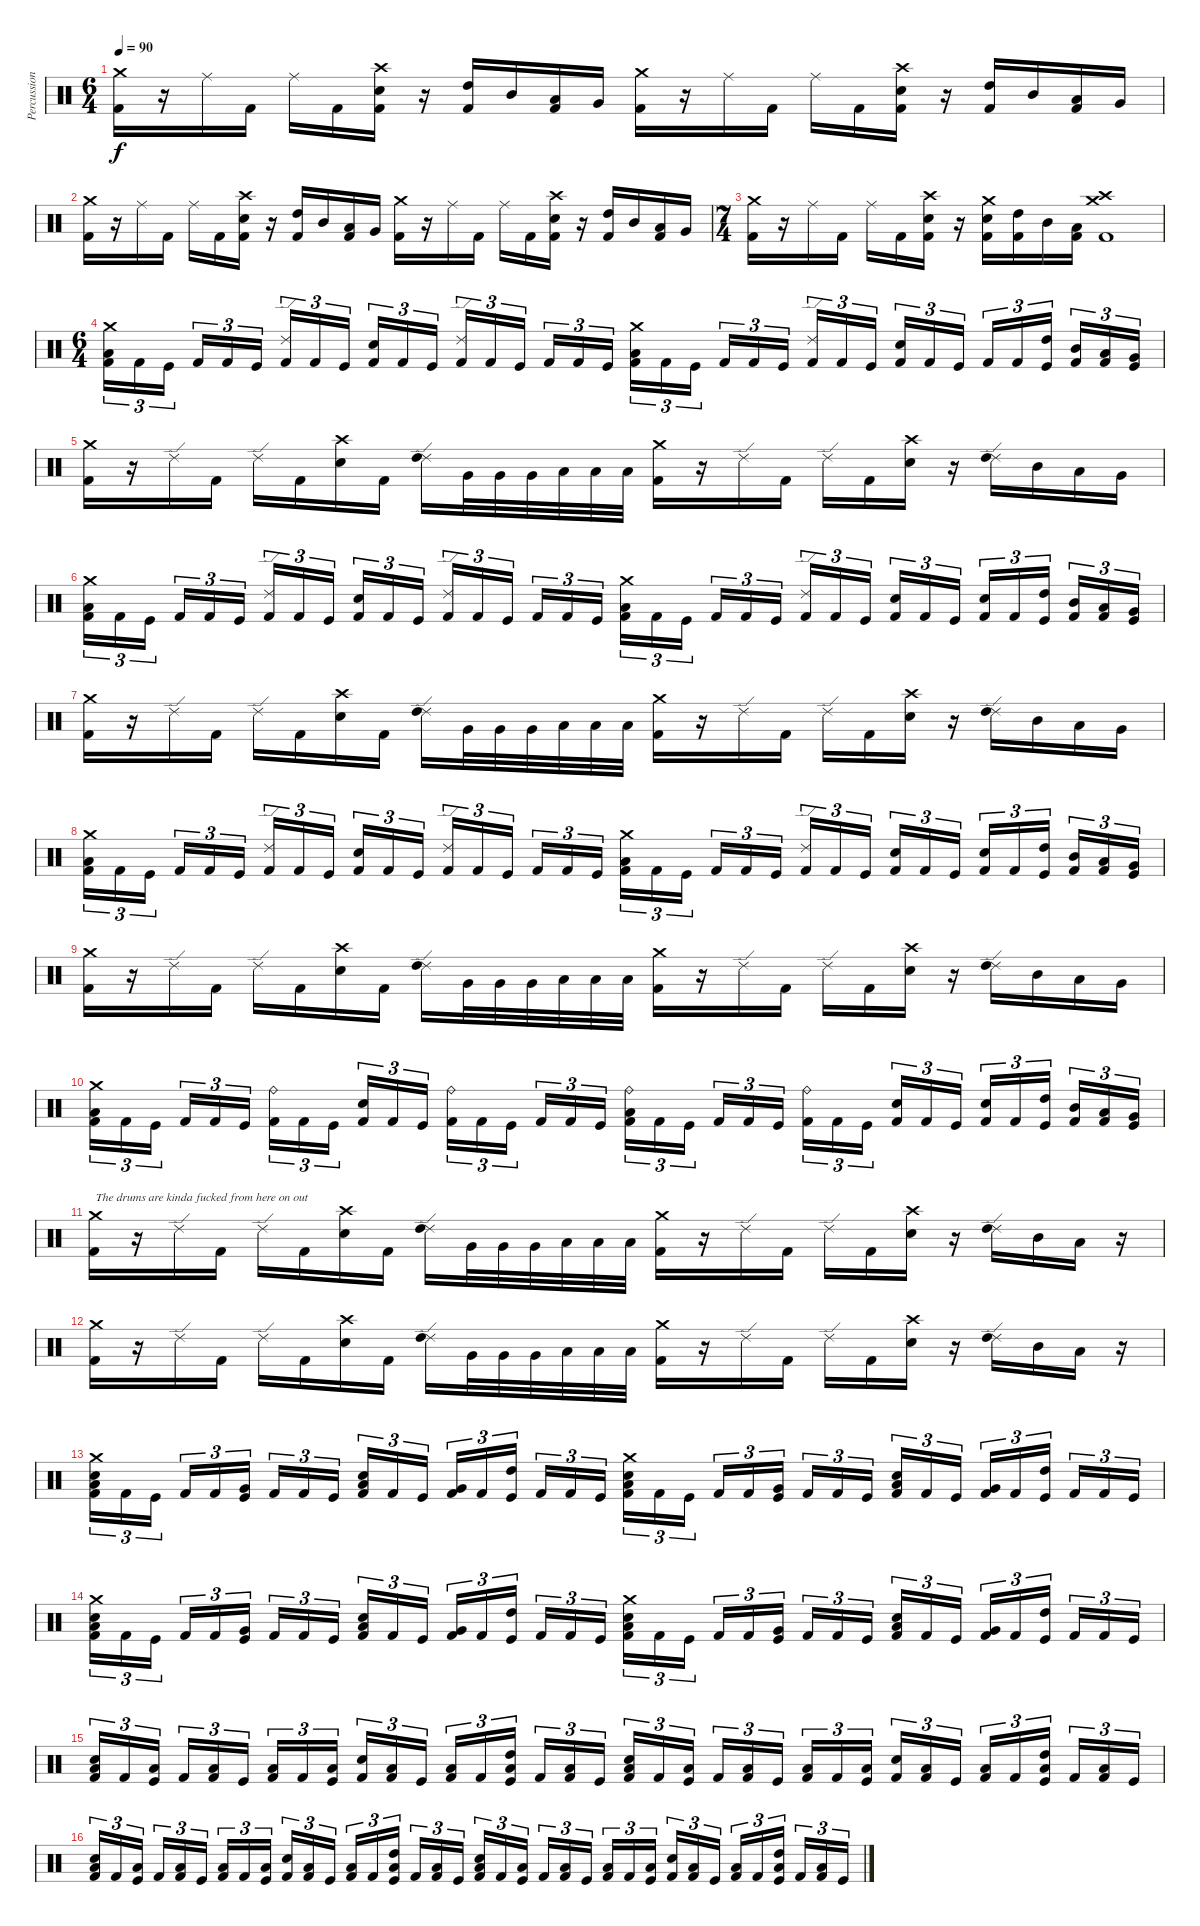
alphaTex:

\track ("Percussion" "Percussion") {instrument percussion}
\staff {score}
\articulation defaults
\ts (6 4)
\tempo 90
\clef neutral
\ks c
("Crash medium (hit)" "Kick (hit) 2").16{dy f} r.16 "Ride (middle)".16 "Kick (hit) 2".16 "Ride (middle)".16 "Kick (hit) 2".16 ("Crash high (hit)" "Electric Snare (hit)" "Kick (hit) 2").16 r.16 ("High Tom (hit)" "Kick (hit) 2").16 "Mid Tom (hit)".16 ("Low Tom (hit)" "Kick (hit) 2").16 "Very Low Tom (hit)".16 ("Crash medium (hit)" "Kick (hit) 2").16 r.16 "Ride (middle)".16 "Kick (hit) 2".16 "Ride (middle)".16 "Kick (hit) 2".16 ("Crash high (hit)" "Electric Snare (hit)" "Kick (hit) 2").16 r.16 ("High Tom (hit)" "Kick (hit) 2").16 "Mid Tom (hit)".16 ("Low Tom (hit)" "Kick (hit) 2").16 "Very Low Tom (hit)".16 |
("Crash medium (hit)" "Kick (hit) 2").16 r.16 "Ride (middle)".16 "Kick (hit) 2".16 "Ride (middle)".16 "Kick (hit) 2".16 ("Crash high (hit)" "Electric Snare (hit)" "Kick (hit) 2").16 r.16 ("High Tom (hit)" "Kick (hit) 2").16 "Mid Tom (hit)".16 ("Low Tom (hit)" "Kick (hit) 2").16 "Very Low Tom (hit)".16 ("Crash medium (hit)" "Kick (hit) 2").16 r.16 "Ride (middle)".16 "Kick (hit) 2".16 "Ride (middle)".16 "Kick (hit) 2".16 ("Crash high (hit)" "Electric Snare (hit)" "Kick (hit) 2").16 r.16 ("High Tom (hit)" "Kick (hit) 2").16 "Mid Tom (hit)".16 ("Low Tom (hit)" "Kick (hit) 2").16 "Very Low Tom (hit)".16 |
\ts (7 4)
("Crash medium (hit)" "Kick (hit) 2").16 r.16 "Ride (middle)".16 "Kick (hit) 2".16 "Ride (middle)".16 "Kick (hit) 2".16 ("Crash high (hit)" "Electric Snare (hit)" "Kick (hit) 2").16 r.16 ("Crash medium (hit)" "Electric Snare (hit)" "Kick (hit) 2").16 ("High Tom (hit)" "Kick (hit) 2").16 "Mid Tom (hit)".16 ("Low Tom (hit)" "Kick (hit) 2").16 ("Crash medium (hit)" "Crash high (hit)" "Kick (hit) 2").1 |
\ts (6 4)
("Crash medium (hit)" "Low Floor Tom (hit)" "Kick (hit) 2").16{tu (3 2)} "Kick (hit) 2".16{tu (3 2)} "Kick (hit)".16{tu (3 2)} "Kick (hit) 2".16{tu (3 2)} "Kick (hit) 2".16{tu (3 2)} "Kick (hit)".16{tu (3 2)} ("Ride (edge) 2" "Kick (hit) 2").16{tu (3 2)} "Kick (hit) 2".16{tu (3 2)} "Kick (hit)".16{tu (3 2)} ("Electric Snare (hit)" "Kick (hit) 2").16{tu (3 2)} "Kick (hit) 2".16{tu (3 2)} "Kick (hit)".16{tu (3 2)} ("Ride (edge) 2" "Kick (hit) 2").16{tu (3 2)} "Kick (hit) 2".16{tu (3 2)} "Kick (hit)".16{tu (3 2)} "Kick (hit) 2".16{tu (3 2)} "Kick (hit) 2".16{tu (3 2)} "Kick (hit)".16{tu (3 2)} ("Crash medium (hit)" "Low Floor Tom (hit)" "Kick (hit) 2").16{tu (3 2)} "Kick (hit) 2".16{tu (3 2)} "Kick (hit)".16{tu (3 2)} "Kick (hit) 2".16{tu (3 2)} "Kick (hit) 2".16{tu (3 2)} "Kick (hit)".16{tu (3 2)} ("Ride (edge) 2" "Kick (hit) 2").16{tu (3 2)} "Kick (hit) 2".16{tu (3 2)} "Kick (hit)".16{tu (3 2)} ("Electric Snare (hit)" "Kick (hit) 2").16{tu (3 2)} "Kick (hit) 2".16{tu (3 2)} "Kick (hit)".16{tu (3 2)} "Kick (hit) 2".16{tu (3 2)} "Kick (hit) 2".16{tu (3 2)} ("High Tom (hit)" "Kick (hit)").16{tu (3 2)} ("Mid Tom (hit)" "Kick (hit) 2").16{tu (3 2)} ("Low Tom (hit)" "Kick (hit) 2").16{tu (3 2)} ("Very Low Tom (hit)" "Kick (hit)").16{tu (3 2)} |
("Crash medium (hit)" "Kick (hit) 2").16 r.16 "Ride (edge) 2".16 "Kick (hit) 2".16 "Ride (edge) 2".16 "Kick (hit) 2".16 ("Crash high (hit)" "Electric Snare (hit)").16 "Kick (hit) 2".16 ("Ride (edge) 2" "High Tom (hit)").16 "Very Low Tom (hit)".32 "Very Low Tom (hit)".32 "Very Low Tom (hit)".32 "Low Floor Tom (hit)".32 "Low Floor Tom (hit)".32 "Low Floor Tom (hit)".32 ("Crash medium (hit)" "Kick (hit) 2").16 r.16 "Ride (edge) 2".16 "Kick (hit) 2".16 "Ride (edge) 2".16 "Kick (hit) 2".16 ("Crash high (hit)" "Electric Snare (hit)").16 r.16 ("Ride (edge) 2" "High Tom (hit)").16 "Mid Tom (hit)".16 "Low Tom (hit)".16 "Very Low Tom (hit)".16 |
("Crash medium (hit)" "Low Floor Tom (hit)" "Kick (hit) 2").16{tu (3 2)} "Kick (hit) 2".16{tu (3 2)} "Kick (hit)".16{tu (3 2)} "Kick (hit) 2".16{tu (3 2)} "Kick (hit) 2".16{tu (3 2)} "Kick (hit)".16{tu (3 2)} ("Ride (edge) 2" "Kick (hit) 2").16{tu (3 2)} "Kick (hit) 2".16{tu (3 2)} "Kick (hit)".16{tu (3 2)} ("Electric Snare (hit)" "Kick (hit) 2").16{tu (3 2)} "Kick (hit) 2".16{tu (3 2)} "Kick (hit)".16{tu (3 2)} ("Ride (edge) 2" "Kick (hit) 2").16{tu (3 2)} "Kick (hit) 2".16{tu (3 2)} "Kick (hit)".16{tu (3 2)} "Kick (hit) 2".16{tu (3 2)} "Kick (hit) 2".16{tu (3 2)} "Kick (hit)".16{tu (3 2)} ("Crash medium (hit)" "Low Floor Tom (hit)" "Kick (hit) 2").16{tu (3 2)} "Kick (hit) 2".16{tu (3 2)} "Kick (hit)".16{tu (3 2)} "Kick (hit) 2".16{tu (3 2)} "Kick (hit) 2".16{tu (3 2)} "Kick (hit)".16{tu (3 2)} ("Ride (edge) 2" "Kick (hit) 2").16{tu (3 2)} "Kick (hit) 2".16{tu (3 2)} "Kick (hit)".16{tu (3 2)} ("Electric Snare (hit)" "Kick (hit) 2").16{tu (3 2)} "Kick (hit) 2".16{tu (3 2)} "Kick (hit)".16{tu (3 2)} ("Electric Snare (hit)" "Kick (hit) 2").16{tu (3 2)} "Kick (hit) 2".16{tu (3 2)} ("High Tom (hit)" "Kick (hit)").16{tu (3 2)} ("Mid Tom (hit)" "Kick (hit) 2").16{tu (3 2)} ("Low Tom (hit)" "Kick (hit) 2").16{tu (3 2)} ("Very Low Tom (hit)" "Kick (hit)").16{tu (3 2)} |
("Crash medium (hit)" "Kick (hit) 2").16 r.16 "Ride (edge) 2".16 "Kick (hit) 2".16 "Ride (edge) 2".16 "Kick (hit) 2".16 ("Crash high (hit)" "Electric Snare (hit)").16 "Kick (hit) 2".16 ("Ride (edge) 2" "High Tom (hit)").16 "Very Low Tom (hit)".32 "Very Low Tom (hit)".32 "Very Low Tom (hit)".32 "Low Floor Tom (hit)".32 "Low Floor Tom (hit)".32 "Low Floor Tom (hit)".32 ("Crash medium (hit)" "Kick (hit) 2").16 r.16 "Ride (edge) 2".16 "Kick (hit) 2".16 "Ride (edge) 2".16 "Kick (hit) 2".16 ("Crash high (hit)" "Electric Snare (hit)").16 r.16 ("Ride (edge) 2" "High Tom (hit)").16 "Mid Tom (hit)".16 "Low Tom (hit)".16 "Very Low Tom (hit)".16 |
("Crash medium (hit)" "Low Floor Tom (hit)" "Kick (hit) 2").16{tu (3 2)} "Kick (hit) 2".16{tu (3 2)} "Kick (hit)".16{tu (3 2)} "Kick (hit) 2".16{tu (3 2)} "Kick (hit) 2".16{tu (3 2)} "Kick (hit)".16{tu (3 2)} ("Ride (edge) 2" "Kick (hit) 2").16{tu (3 2)} "Kick (hit) 2".16{tu (3 2)} "Kick (hit)".16{tu (3 2)} ("Electric Snare (hit)" "Kick (hit) 2").16{tu (3 2)} "Kick (hit) 2".16{tu (3 2)} "Kick (hit)".16{tu (3 2)} ("Ride (edge) 2" "Kick (hit) 2").16{tu (3 2)} "Kick (hit) 2".16{tu (3 2)} "Kick (hit)".16{tu (3 2)} "Kick (hit) 2".16{tu (3 2)} "Kick (hit) 2".16{tu (3 2)} "Kick (hit)".16{tu (3 2)} ("Crash medium (hit)" "Low Floor Tom (hit)" "Kick (hit) 2").16{tu (3 2)} "Kick (hit) 2".16{tu (3 2)} "Kick (hit)".16{tu (3 2)} "Kick (hit) 2".16{tu (3 2)} "Kick (hit) 2".16{tu (3 2)} "Kick (hit)".16{tu (3 2)} ("Ride (edge) 2" "Kick (hit) 2").16{tu (3 2)} "Kick (hit) 2".16{tu (3 2)} "Kick (hit)".16{tu (3 2)} ("Electric Snare (hit)" "Kick (hit) 2").16{tu (3 2)} "Kick (hit) 2".16{tu (3 2)} "Kick (hit)".16{tu (3 2)} ("Electric Snare (hit)" "Kick (hit) 2").16{tu (3 2)} "Kick (hit) 2".16{tu (3 2)} ("High Tom (hit)" "Kick (hit)").16{tu (3 2)} ("Mid Tom (hit)" "Kick (hit) 2").16{tu (3 2)} ("Low Tom (hit)" "Kick (hit) 2").16{tu (3 2)} ("Very Low Tom (hit)" "Kick (hit)").16{tu (3 2)} |
("Crash medium (hit)" "Kick (hit) 2").16 r.16 "Ride (edge) 2".16 "Kick (hit) 2".16 "Ride (edge) 2".16 "Kick (hit) 2".16 ("Crash high (hit)" "Electric Snare (hit)").16 "Kick (hit) 2".16 ("Ride (edge) 2" "High Tom (hit)").16 "Very Low Tom (hit)".32 "Very Low Tom (hit)".32 "Very Low Tom (hit)".32 "Low Floor Tom (hit)".32 "Low Floor Tom (hit)".32 "Low Floor Tom (hit)".32 ("Crash medium (hit)" "Kick (hit) 2").16 r.16 "Ride (edge) 2".16 "Kick (hit) 2".16 "Ride (edge) 2".16 "Kick (hit) 2".16 ("Crash high (hit)" "Electric Snare (hit)").16 r.16 ("Ride (edge) 2" "High Tom (hit)").16 "Mid Tom (hit)".16 "Low Tom (hit)".16 "Very Low Tom (hit)".16 |
("Crash medium (hit)" "Low Floor Tom (hit)" "Kick (hit) 2").16{tu (3 2)} "Kick (hit) 2".16{tu (3 2)} "Kick (hit)".16{tu (3 2)} "Kick (hit) 2".16{tu (3 2)} "Kick (hit) 2".16{tu (3 2)} "Kick (hit)".16{tu (3 2)} ("Ride (bell)" "Kick (hit) 2").16{tu (3 2)} "Kick (hit) 2".16{tu (3 2)} "Kick (hit)".16{tu (3 2)} ("Electric Snare (hit)" "Kick (hit) 2").16{tu (3 2)} "Kick (hit) 2".16{tu (3 2)} "Kick (hit)".16{tu (3 2)} ("Ride (bell)" "Kick (hit) 2").16{tu (3 2)} "Kick (hit) 2".16{tu (3 2)} "Kick (hit)".16{tu (3 2)} "Kick (hit) 2".16{tu (3 2)} "Kick (hit) 2".16{tu (3 2)} "Kick (hit)".16{tu (3 2)} ("Ride (bell)" "Low Floor Tom (hit)" "Kick (hit) 2").16{tu (3 2)} "Kick (hit) 2".16{tu (3 2)} "Kick (hit)".16{tu (3 2)} "Kick (hit) 2".16{tu (3 2)} "Kick (hit) 2".16{tu (3 2)} "Kick (hit)".16{tu (3 2)} ("Ride (bell)" "Kick (hit) 2").16{tu (3 2)} "Kick (hit) 2".16{tu (3 2)} "Kick (hit)".16{tu (3 2)} ("Electric Snare (hit)" "Kick (hit) 2").16{tu (3 2)} "Kick (hit) 2".16{tu (3 2)} "Kick (hit)".16{tu (3 2)} ("Electric Snare (hit)" "Kick (hit) 2").16{tu (3 2)} "Kick (hit) 2".16{tu (3 2)} ("High Tom (hit)" "Kick (hit)").16{tu (3 2)} ("Mid Tom (hit)" "Kick (hit) 2").16{tu (3 2)} ("Low Tom (hit)" "Kick (hit) 2").16{tu (3 2)} ("Very Low Tom (hit)" "Kick (hit)").16{tu (3 2)} |
("Crash medium (hit)" "Kick (hit) 2").16{txt "The drums are kinda fucked from here on out"} r.16 "Ride (edge) 2".16 "Kick (hit) 2".16 "Ride (edge) 2".16 "Kick (hit) 2".16 ("Crash high (hit)" "Electric Snare (hit)").16 "Kick (hit) 2".16 ("Ride (edge) 2" "High Tom (hit)").16 "Very Low Tom (hit)".32 "Very Low Tom (hit)".32 "Very Low Tom (hit)".32 "Low Floor Tom (hit)".32 "Low Floor Tom (hit)".32 "Low Floor Tom (hit)".32 ("Crash medium (hit)" "Kick (hit) 2").16 r.16 "Ride (edge) 2".16 "Kick (hit) 2".16 "Ride (edge) 2".16 "Kick (hit) 2".16 ("Crash high (hit)" "Electric Snare (hit)").16 r.16 ("Ride (edge) 2" "High Tom (hit)").16 "Mid Tom (hit)".16 "Low Tom (hit)".16 r.16 |
("Crash medium (hit)" "Kick (hit) 2").16 r.16 "Ride (edge) 2".16 "Kick (hit) 2".16 "Ride (edge) 2".16 "Kick (hit) 2".16 ("Crash high (hit)" "Electric Snare (hit)").16 "Kick (hit) 2".16 ("Ride (edge) 2" "High Tom (hit)").16 "Very Low Tom (hit)".32 "Very Low Tom (hit)".32 "Very Low Tom (hit)".32 "Low Floor Tom (hit)".32 "Low Floor Tom (hit)".32 "Low Floor Tom (hit)".32 ("Crash medium (hit)" "Kick (hit) 2").16 r.16 "Ride (edge) 2".16 "Kick (hit) 2".16 "Ride (edge) 2".16 "Kick (hit) 2".16 ("Crash high (hit)" "Electric Snare (hit)").16 r.16 ("Ride (edge) 2" "High Tom (hit)").16 "Mid Tom (hit)".16 "Low Tom (hit)".16 r.16 |
("Crash medium (hit)" "Low Floor Tom (hit)" "Electric Snare (hit)" "Kick (hit) 2").16{tu (3 2)} "Kick (hit) 2".16{tu (3 2)} "Kick (hit)".16{tu (3 2)} "Kick (hit) 2".16{tu (3 2)} "Kick (hit) 2".16{tu (3 2)} ("Very Low Tom (hit)" "Kick (hit)").16{tu (3 2)} "Kick (hit) 2".16{tu (3 2)} "Kick (hit) 2".16{tu (3 2)} "Kick (hit)".16{tu (3 2)} ("Low Floor Tom (hit)" "Electric Snare (hit)" "Kick (hit) 2").16{tu (3 2)} "Kick (hit) 2".16{tu (3 2)} "Kick (hit)".16{tu (3 2)} ("Very Low Tom (hit)" "Kick (hit) 2").16{tu (3 2)} "Kick (hit) 2".16{tu (3 2)} ("High Tom (hit)" "Kick (hit)").16{tu (3 2)} "Kick (hit) 2".16{tu (3 2)} "Kick (hit) 2".16{tu (3 2)} "Kick (hit)".16{tu (3 2)} ("Crash medium (hit)" "Low Floor Tom (hit)" "Electric Snare (hit)" "Kick (hit) 2").16{tu (3 2)} "Kick (hit) 2".16{tu (3 2)} "Kick (hit)".16{tu (3 2)} "Kick (hit) 2".16{tu (3 2)} "Kick (hit) 2".16{tu (3 2)} ("Very Low Tom (hit)" "Kick (hit)").16{tu (3 2)} "Kick (hit) 2".16{tu (3 2)} "Kick (hit) 2".16{tu (3 2)} "Kick (hit)".16{tu (3 2)} ("Low Floor Tom (hit)" "Electric Snare (hit)" "Kick (hit) 2").16{tu (3 2)} "Kick (hit) 2".16{tu (3 2)} "Kick (hit)".16{tu (3 2)} ("Very Low Tom (hit)" "Kick (hit) 2").16{tu (3 2)} "Kick (hit) 2".16{tu (3 2)} ("High Tom (hit)" "Kick (hit)").16{tu (3 2)} "Kick (hit) 2".16{tu (3 2)} "Kick (hit) 2".16{tu (3 2)} "Kick (hit)".16{tu (3 2)} |
("Crash medium (hit)" "Low Floor Tom (hit)" "Electric Snare (hit)" "Kick (hit) 2").16{tu (3 2)} "Kick (hit) 2".16{tu (3 2)} "Kick (hit)".16{tu (3 2)} "Kick (hit) 2".16{tu (3 2)} "Kick (hit) 2".16{tu (3 2)} ("Very Low Tom (hit)" "Kick (hit)").16{tu (3 2)} "Kick (hit) 2".16{tu (3 2)} "Kick (hit) 2".16{tu (3 2)} "Kick (hit)".16{tu (3 2)} ("Low Floor Tom (hit)" "Electric Snare (hit)" "Kick (hit) 2").16{tu (3 2)} "Kick (hit) 2".16{tu (3 2)} "Kick (hit)".16{tu (3 2)} ("Very Low Tom (hit)" "Kick (hit) 2").16{tu (3 2)} "Kick (hit) 2".16{tu (3 2)} ("High Tom (hit)" "Kick (hit)").16{tu (3 2)} "Kick (hit) 2".16{tu (3 2)} "Kick (hit) 2".16{tu (3 2)} "Kick (hit)".16{tu (3 2)} ("Crash medium (hit)" "Low Floor Tom (hit)" "Electric Snare (hit)" "Kick (hit) 2").16{tu (3 2)} "Kick (hit) 2".16{tu (3 2)} "Kick (hit)".16{tu (3 2)} "Kick (hit) 2".16{tu (3 2)} "Kick (hit) 2".16{tu (3 2)} ("Very Low Tom (hit)" "Kick (hit)").16{tu (3 2)} "Kick (hit) 2".16{tu (3 2)} "Kick (hit) 2".16{tu (3 2)} "Kick (hit)".16{tu (3 2)} ("Low Floor Tom (hit)" "Electric Snare (hit)" "Kick (hit) 2").16{tu (3 2)} "Kick (hit) 2".16{tu (3 2)} "Kick (hit)".16{tu (3 2)} ("Very Low Tom (hit)" "Kick (hit) 2").16{tu (3 2)} "Kick (hit) 2".16{tu (3 2)} ("High Tom (hit)" "Kick (hit)").16{tu (3 2)} "Kick (hit) 2".16{tu (3 2)} "Kick (hit) 2".16{tu (3 2)} "Kick (hit)".16{tu (3 2)} |
("Low Floor Tom (hit)" "Electric Snare (hit)" "Kick (hit) 2").16{tu (3 2)} "Kick (hit) 2".16{tu (3 2)} ("Low Floor Tom (hit)" "Kick (hit)").16{tu (3 2)} "Kick (hit) 2".16{tu (3 2)} ("Low Floor Tom (hit)" "Kick (hit) 2").16{tu (3 2)} "Kick (hit)".16{tu (3 2)} ("Low Floor Tom (hit)" "Kick (hit) 2").16{tu (3 2)} "Kick (hit) 2".16{tu (3 2)} ("Low Floor Tom (hit)" "Kick (hit)").16{tu (3 2)} ("Electric Snare (hit)" "Kick (hit) 2").16{tu (3 2)} ("Low Floor Tom (hit)" "Kick (hit) 2").16{tu (3 2)} "Kick (hit)".16{tu (3 2)} ("Low Floor Tom (hit)" "Kick (hit) 2").16{tu (3 2)} "Kick (hit) 2".16{tu (3 2)} ("Low Floor Tom (hit)" "High Tom (hit)" "Kick (hit)").16{tu (3 2)} "Kick (hit) 2".16{tu (3 2)} ("Low Floor Tom (hit)" "Kick (hit) 2").16{tu (3 2)} "Kick (hit)".16{tu (3 2)} ("Low Floor Tom (hit)" "Electric Snare (hit)" "Kick (hit) 2").16{tu (3 2)} "Kick (hit) 2".16{tu (3 2)} ("Low Floor Tom (hit)" "Kick (hit)").16{tu (3 2)} "Kick (hit) 2".16{tu (3 2)} ("Low Floor Tom (hit)" "Kick (hit) 2").16{tu (3 2)} "Kick (hit)".16{tu (3 2)} ("Low Floor Tom (hit)" "Kick (hit) 2").16{tu (3 2)} "Kick (hit) 2".16{tu (3 2)} ("Low Floor Tom (hit)" "Kick (hit)").16{tu (3 2)} ("Electric Snare (hit)" "Kick (hit) 2").16{tu (3 2)} ("Low Floor Tom (hit)" "Kick (hit) 2").16{tu (3 2)} "Kick (hit)".16{tu (3 2)} ("Low Floor Tom (hit)" "Kick (hit) 2").16{tu (3 2)} "Kick (hit) 2".16{tu (3 2)} ("Low Floor Tom (hit)" "High Tom (hit)" "Kick (hit)").16{tu (3 2)} "Kick (hit) 2".16{tu (3 2)} ("Low Floor Tom (hit)" "Kick (hit) 2").16{tu (3 2)} "Kick (hit)".16{tu (3 2)} |
("Low Floor Tom (hit)" "Electric Snare (hit)" "Kick (hit) 2").16{tu (3 2)} "Kick (hit) 2".16{tu (3 2)} ("Low Floor Tom (hit)" "Kick (hit)").16{tu (3 2)} "Kick (hit) 2".16{tu (3 2)} ("Low Floor Tom (hit)" "Kick (hit) 2").16{tu (3 2)} "Kick (hit)".16{tu (3 2)} ("Low Floor Tom (hit)" "Kick (hit) 2").16{tu (3 2)} "Kick (hit) 2".16{tu (3 2)} ("Low Floor Tom (hit)" "Kick (hit)").16{tu (3 2)} ("Electric Snare (hit)" "Kick (hit) 2").16{tu (3 2)} ("Low Floor Tom (hit)" "Kick (hit) 2").16{tu (3 2)} "Kick (hit)".16{tu (3 2)} ("Low Floor Tom (hit)" "Kick (hit) 2").16{tu (3 2)} "Kick (hit) 2".16{tu (3 2)} ("Low Floor Tom (hit)" "High Tom (hit)" "Kick (hit)").16{tu (3 2)} "Kick (hit) 2".16{tu (3 2)} ("Low Floor Tom (hit)" "Kick (hit) 2").16{tu (3 2)} "Kick (hit)".16{tu (3 2)} ("Low Floor Tom (hit)" "Electric Snare (hit)" "Kick (hit) 2").16{tu (3 2)} "Kick (hit) 2".16{tu (3 2)} ("Low Floor Tom (hit)" "Kick (hit)").16{tu (3 2)} "Kick (hit) 2".16{tu (3 2)} ("Low Floor Tom (hit)" "Kick (hit) 2").16{tu (3 2)} "Kick (hit)".16{tu (3 2)} ("Low Floor Tom (hit)" "Kick (hit) 2").16{tu (3 2)} "Kick (hit) 2".16{tu (3 2)} ("Low Floor Tom (hit)" "Kick (hit)").16{tu (3 2)} ("Electric Snare (hit)" "Kick (hit) 2").16{tu (3 2)} ("Low Floor Tom (hit)" "Kick (hit) 2").16{tu (3 2)} "Kick (hit)".16{tu (3 2)} ("Low Floor Tom (hit)" "Kick (hit) 2").16{tu (3 2)} "Kick (hit) 2".16{tu (3 2)} ("Low Floor Tom (hit)" "High Tom (hit)" "Kick (hit)").16{tu (3 2)} "Kick (hit) 2".16{tu (3 2)} ("Low Floor Tom (hit)" "Kick (hit) 2").16{tu (3 2)} "Kick (hit)".16{tu (3 2)}
